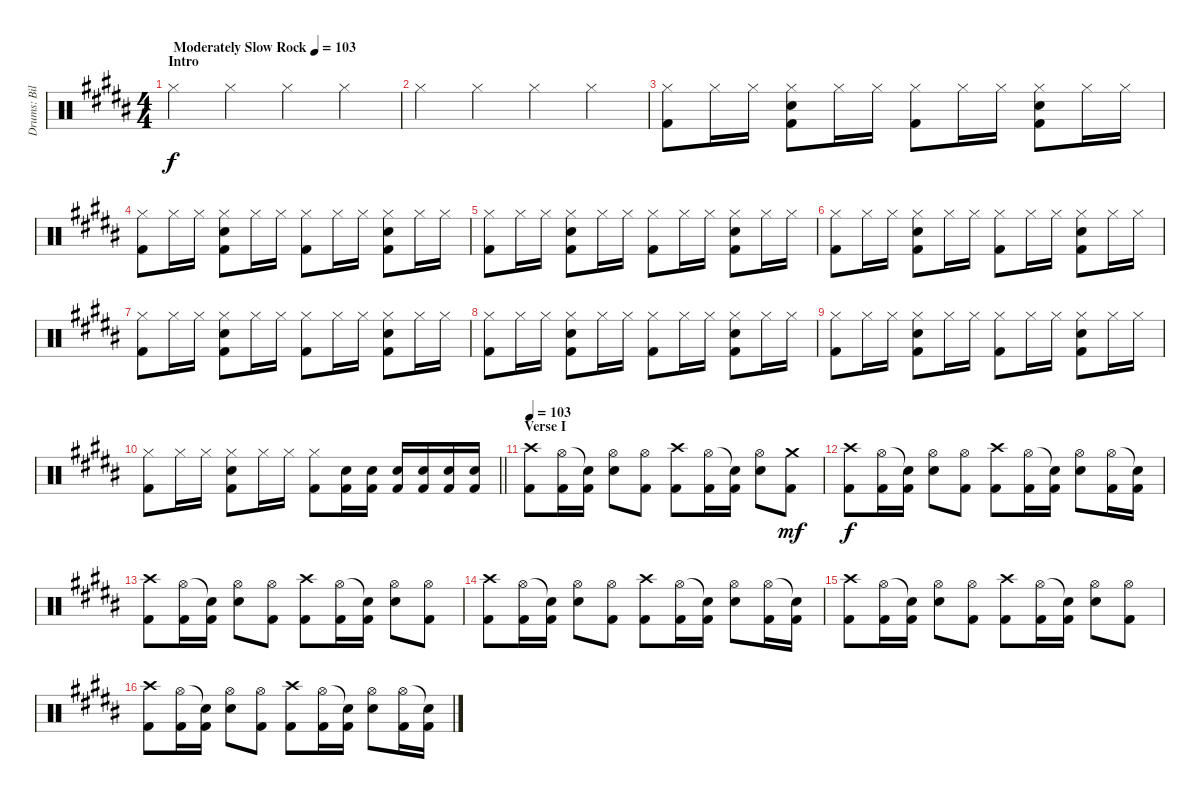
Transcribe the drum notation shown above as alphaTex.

\track ("Drums: Bill" "Drums: Bil") {instrument percussion}
\staff {score}
\articulation defaults
\ts (4 4)
\section ("" "Intro")
\tempo (103 "Moderately Slow Rock")
\tempo 100
\tempo (103 "Moderately Slow Rock")
\clef neutral
\ks b "Hi-Hat (closed)".4{dy f} "Hi-Hat (closed)".4 "Hi-Hat (closed)".4 "Hi-Hat (closed)".4
|
"Hi-Hat (closed)".4 "Hi-Hat (closed)".4 "Hi-Hat (closed)".4 "Hi-Hat (closed)".4 |
("Hi-Hat (closed)" "Kick (hit) 2").8 "Hi-Hat (closed)".16 "Hi-Hat (closed)".16 ("Hi-Hat (closed)" "Electric Snare (hit)" "Kick (hit) 2").8 "Hi-Hat (closed)".16 "Hi-Hat (closed)".16 ("Hi-Hat (closed)" "Kick (hit) 2").8 "Hi-Hat (closed)".16 "Hi-Hat (closed)".16 ("Hi-Hat (closed)" "Electric Snare (hit)" "Kick (hit) 2").8 "Hi-Hat (closed)".16 "Hi-Hat (closed)".16 |
("Hi-Hat (closed)" "Kick (hit) 2").8 "Hi-Hat (closed)".16 "Hi-Hat (closed)".16 ("Hi-Hat (closed)" "Electric Snare (hit)" "Kick (hit) 2").8 "Hi-Hat (closed)".16 "Hi-Hat (closed)".16 ("Hi-Hat (closed)" "Kick (hit) 2").8 "Hi-Hat (closed)".16 "Hi-Hat (closed)".16 ("Hi-Hat (closed)" "Electric Snare (hit)" "Kick (hit) 2").8 "Hi-Hat (closed)".16 "Hi-Hat (closed)".16 |
("Hi-Hat (closed)" "Kick (hit) 2").8 "Hi-Hat (closed)".16 "Hi-Hat (closed)".16 ("Hi-Hat (closed)" "Electric Snare (hit)" "Kick (hit) 2").8 "Hi-Hat (closed)".16 "Hi-Hat (closed)".16 ("Hi-Hat (closed)" "Kick (hit) 2").8 "Hi-Hat (closed)".16 "Hi-Hat (closed)".16 ("Hi-Hat (closed)" "Electric Snare (hit)" "Kick (hit) 2").8 "Hi-Hat (closed)".16 "Hi-Hat (closed)".16 |
("Hi-Hat (closed)" "Kick (hit) 2").8 "Hi-Hat (closed)".16 "Hi-Hat (closed)".16 ("Hi-Hat (closed)" "Electric Snare (hit)" "Kick (hit) 2").8 "Hi-Hat (closed)".16 "Hi-Hat (closed)".16 ("Hi-Hat (closed)" "Kick (hit) 2").8 "Hi-Hat (closed)".16 "Hi-Hat (closed)".16 ("Hi-Hat (closed)" "Electric Snare (hit)" "Kick (hit) 2").8 "Hi-Hat (closed)".16 "Hi-Hat (closed)".16 |
("Hi-Hat (closed)" "Kick (hit) 2").8 "Hi-Hat (closed)".16 "Hi-Hat (closed)".16 ("Hi-Hat (closed)" "Electric Snare (hit)" "Kick (hit) 2").8 "Hi-Hat (closed)".16 "Hi-Hat (closed)".16 ("Hi-Hat (closed)" "Kick (hit) 2").8 "Hi-Hat (closed)".16 "Hi-Hat (closed)".16 ("Hi-Hat (closed)" "Electric Snare (hit)" "Kick (hit) 2").8 "Hi-Hat (closed)".16 "Hi-Hat (closed)".16 |
("Hi-Hat (closed)" "Kick (hit) 2").8 "Hi-Hat (closed)".16 "Hi-Hat (closed)".16 ("Hi-Hat (closed)" "Electric Snare (hit)" "Kick (hit) 2").8 "Hi-Hat (closed)".16 "Hi-Hat (closed)".16 ("Hi-Hat (closed)" "Kick (hit) 2").8 "Hi-Hat (closed)".16 "Hi-Hat (closed)".16 ("Hi-Hat (closed)" "Electric Snare (hit)" "Kick (hit) 2").8 "Hi-Hat (closed)".16 "Hi-Hat (closed)".16 |
("Hi-Hat (closed)" "Kick (hit) 2").8 "Hi-Hat (closed)".16 "Hi-Hat (closed)".16 ("Hi-Hat (closed)" "Electric Snare (hit)" "Kick (hit) 2").8 "Hi-Hat (closed)".16 "Hi-Hat (closed)".16 ("Hi-Hat (closed)" "Kick (hit) 2").8 "Hi-Hat (closed)".16 "Hi-Hat (closed)".16 ("Hi-Hat (closed)" "Electric Snare (hit)" "Kick (hit) 2").8 "Hi-Hat (closed)".16 "Hi-Hat (closed)".16 |
\barLineRight lightlight
("Hi-Hat (closed)" "Kick (hit) 2").8 "Hi-Hat (closed)".16 "Hi-Hat (closed)".16 ("Hi-Hat (closed)" "Electric Snare (hit)" "Kick (hit) 2").8 "Hi-Hat (closed)".16 "Hi-Hat (closed)".16 ("Hi-Hat (closed)" "Kick (hit) 2").8 ("Electric Snare (hit)" "Kick (hit) 2").16 ("Electric Snare (hit)" "Kick (hit) 2").16 ("Electric Snare (hit)" "Kick (hit) 2").16 ("Electric Snare (hit)" "Kick (hit) 2").16 ("Electric Snare (hit)" "Kick (hit) 2").16 ("Electric Snare (hit)" "Kick (hit) 2").16 |
\section ("" "Verse I")
\tempo 103
("Crash high (hit)" "Kick (hit) 2").8 ("Hi-Hat (open)" "Kick (hit) 2").16 ("Snare (hit)"{t} "Kick (hit) 2").16 ("Hi-Hat (open)" "Electric Snare (hit)").8 ("Hi-Hat (open)" "Kick (hit) 2").8 ("Crash high (hit)" "Kick (hit) 2").8 ("Hi-Hat (open)" "Kick (hit) 2").16 ("Snare (hit)"{t} "Kick (hit) 2").16 ("Hi-Hat (open)" "Electric Snare (hit)").8 ("Crash medium (hit)" "Kick (hit) 2").8{dy mf} |
("Crash high (hit)" "Kick (hit) 2").8{dy f} ("Hi-Hat (open)" "Kick (hit) 2").16 ("Snare (hit)"{t} "Kick (hit) 2").16 ("Hi-Hat (open)" "Electric Snare (hit)").8 ("Hi-Hat (open)" "Kick (hit) 2").8 ("Crash high (hit)" "Kick (hit) 2").8 ("Hi-Hat (open)" "Kick (hit) 2").16 ("Snare (hit)"{t} "Kick (hit) 2").16 ("Hi-Hat (open)" "Electric Snare (hit)").8 ("Hi-Hat (open)" "Kick (hit) 2").16 ("Snare (hit)"{t} "Kick (hit) 2").16 |
("Crash high (hit)" "Kick (hit) 2").8 ("Hi-Hat (open)" "Kick (hit) 2").16 ("Snare (hit)"{t} "Kick (hit) 2").16 ("Hi-Hat (open)" "Electric Snare (hit)").8 ("Hi-Hat (open)" "Kick (hit) 2").8 ("Crash high (hit)" "Kick (hit) 2").8 ("Hi-Hat (open)" "Kick (hit) 2").16 ("Snare (hit)"{t} "Kick (hit) 2").16 ("Hi-Hat (open)" "Electric Snare (hit)").8 ("Hi-Hat (open)" "Kick (hit) 2").8 |
("Crash high (hit)" "Kick (hit) 2").8 ("Hi-Hat (open)" "Kick (hit) 2").16 ("Snare (hit)"{t} "Kick (hit) 2").16 ("Hi-Hat (open)" "Electric Snare (hit)").8 ("Hi-Hat (open)" "Kick (hit) 2").8 ("Crash high (hit)" "Kick (hit) 2").8 ("Hi-Hat (open)" "Kick (hit) 2").16 ("Snare (hit)"{t} "Kick (hit) 2").16 ("Hi-Hat (open)" "Electric Snare (hit)").8 ("Hi-Hat (open)" "Kick (hit) 2").16 ("Snare (hit)"{t} "Kick (hit) 2").16 |
("Crash high (hit)" "Kick (hit) 2").8 ("Hi-Hat (open)" "Kick (hit) 2").16 ("Snare (hit)"{t} "Kick (hit) 2").16 ("Hi-Hat (open)" "Electric Snare (hit)").8 ("Hi-Hat (open)" "Kick (hit) 2").8 ("Crash high (hit)" "Kick (hit) 2").8 ("Hi-Hat (open)" "Kick (hit) 2").16 ("Snare (hit)"{t} "Kick (hit) 2").16 ("Hi-Hat (open)" "Electric Snare (hit)").8 ("Hi-Hat (open)" "Kick (hit) 2").8 |
("Crash high (hit)" "Kick (hit) 2").8 ("Hi-Hat (open)" "Kick (hit) 2").16 ("Snare (hit)"{t} "Kick (hit) 2").16 ("Hi-Hat (open)" "Electric Snare (hit)").8 ("Hi-Hat (open)" "Kick (hit) 2").8 ("Crash high (hit)" "Kick (hit) 2").8 ("Hi-Hat (open)" "Kick (hit) 2").16 ("Snare (hit)"{t} "Kick (hit) 2").16 ("Hi-Hat (open)" "Electric Snare (hit)").8 ("Hi-Hat (open)" "Kick (hit) 2").16 ("Snare (hit)"{t} "Kick (hit) 2").16
